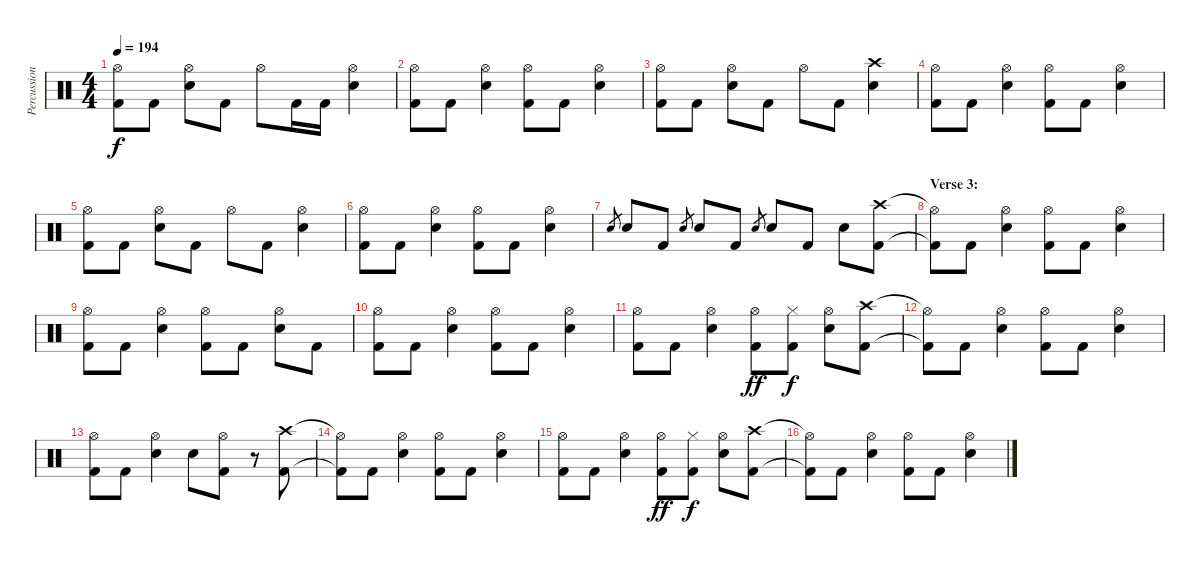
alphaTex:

\track ("Percussion" "Percussion") {instrument percussion}
\staff {score}
\articulation defaults
\ts (4 4)
\tempo 194
\clef neutral
\ks c
("Hi-Hat (open)" "Kick (hit) 2").8{dy f} "Kick (hit) 2".8 ("Hi-Hat (open)" "Electric Snare (hit)").8 "Kick (hit) 2".8 "Hi-Hat (open)".8 "Kick (hit) 2".16 "Kick (hit) 2".16 ("Hi-Hat (open)" "Electric Snare (hit)").4 |
("Hi-Hat (open)" "Kick (hit) 2").8 "Kick (hit) 2".8 ("Hi-Hat (open)" "Electric Snare (hit)").4 ("Hi-Hat (open)" "Kick (hit) 2").8 "Kick (hit) 2".8 ("Hi-Hat (open)" "Electric Snare (hit)").4 |
("Hi-Hat (open)" "Kick (hit) 2").8 "Kick (hit) 2".8 ("Hi-Hat (open)" "Electric Snare (hit)").8 "Kick (hit) 2".8 "Hi-Hat (open)".8 "Kick (hit) 2".8 ("Crash high (hit)" "Electric Snare (hit)").4 |
("Hi-Hat (open)" "Kick (hit) 2").8 "Kick (hit) 2".8 ("Hi-Hat (open)" "Electric Snare (hit)").4 ("Hi-Hat (open)" "Kick (hit) 2").8 "Kick (hit) 2".8 ("Hi-Hat (open)" "Electric Snare (hit)").4 |
("Hi-Hat (open)" "Kick (hit) 2").8 "Kick (hit) 2".8 ("Hi-Hat (open)" "Electric Snare (hit)").8 "Kick (hit) 2".8 "Hi-Hat (open)".8 "Kick (hit) 2".8 ("Hi-Hat (open)" "Electric Snare (hit)").4 |
("Hi-Hat (open)" "Kick (hit) 2").8 "Kick (hit) 2".8 ("Hi-Hat (open)" "Electric Snare (hit)").4 ("Hi-Hat (open)" "Kick (hit) 2").8 "Kick (hit) 2".8 ("Hi-Hat (open)" "Electric Snare (hit)").4 |
"Electric Snare (hit)".8{gr} "Electric Snare (hit)".8 "Kick (hit) 2".8 "Electric Snare (hit)".8{gr} "Electric Snare (hit)".8 "Kick (hit) 2".8 "Electric Snare (hit)".8{gr} "Electric Snare (hit)".8 "Kick (hit) 2".8 "Electric Snare (hit)".8 ("Crash high (hit)" "Kick (hit) 2").8 |
\section ("" "Verse 3:")
("Hi-Hat (open)"{t} "Kick (hit) 2"{t}).8 "Kick (hit) 2".8 ("Hi-Hat (open)" "Electric Snare (hit)").4 ("Hi-Hat (open)" "Kick (hit) 2").8 "Kick (hit) 2".8 ("Hi-Hat (open)" "Electric Snare (hit)").4 |
("Hi-Hat (open)" "Kick (hit) 2").8 "Kick (hit) 2".8 ("Hi-Hat (open)" "Electric Snare (hit)").4 ("Hi-Hat (open)" "Kick (hit) 2").8 "Kick (hit) 2".8 ("Hi-Hat (open)" "Electric Snare (hit)").8 "Kick (hit) 2".8 |
("Hi-Hat (open)" "Kick (hit) 2").8 "Kick (hit) 2".8 ("Hi-Hat (open)" "Electric Snare (hit)").4 ("Hi-Hat (open)" "Kick (hit) 2").8 "Kick (hit) 2".8 ("Hi-Hat (open)" "Electric Snare (hit)").4 |
("Hi-Hat (open)" "Kick (hit) 2").8 "Kick (hit) 2".8 ("Hi-Hat (open)" "Electric Snare (hit)").4 ("Hi-Hat (open)" "Kick (hit) 2").8{dy ff} ("Hi-Hat (closed)" "Kick (hit) 2").8{dy f} ("Hi-Hat (open)" "Electric Snare (hit)").8 ("Crash high (hit)" "Kick (hit) 2").8 |
("Hi-Hat (open)"{t} "Kick (hit) 2"{t}).8 "Kick (hit) 2".8 ("Hi-Hat (open)" "Electric Snare (hit)").4 ("Hi-Hat (open)" "Kick (hit) 2").8 "Kick (hit) 2".8 ("Hi-Hat (open)" "Electric Snare (hit)").4 |
("Hi-Hat (open)" "Kick (hit) 2").8 "Kick (hit) 2".8 ("Hi-Hat (open)" "Electric Snare (hit)").4 "Electric Snare (hit)".8 ("Hi-Hat (open)" "Kick (hit) 2").8 r.8 ("Crash high (hit)" "Kick (hit) 2").8 |
("Hi-Hat (open)"{t} "Kick (hit) 2"{t}).8 "Kick (hit) 2".8 ("Hi-Hat (open)" "Electric Snare (hit)").4 ("Hi-Hat (open)" "Kick (hit) 2").8 "Kick (hit) 2".8 ("Hi-Hat (open)" "Electric Snare (hit)").4 |
("Hi-Hat (open)" "Kick (hit) 2").8 "Kick (hit) 2".8 ("Hi-Hat (open)" "Electric Snare (hit)").4 ("Hi-Hat (open)" "Kick (hit) 2").8{dy ff} ("Hi-Hat (closed)" "Kick (hit) 2").8{dy f} ("Hi-Hat (open)" "Electric Snare (hit)").8 ("Crash high (hit)" "Kick (hit) 2").8 |
("Hi-Hat (open)"{t} "Kick (hit) 2"{t}).8 "Kick (hit) 2".8 ("Hi-Hat (open)" "Electric Snare (hit)").4 ("Hi-Hat (open)" "Kick (hit) 2").8 "Kick (hit) 2".8 ("Hi-Hat (open)" "Electric Snare (hit)").4
